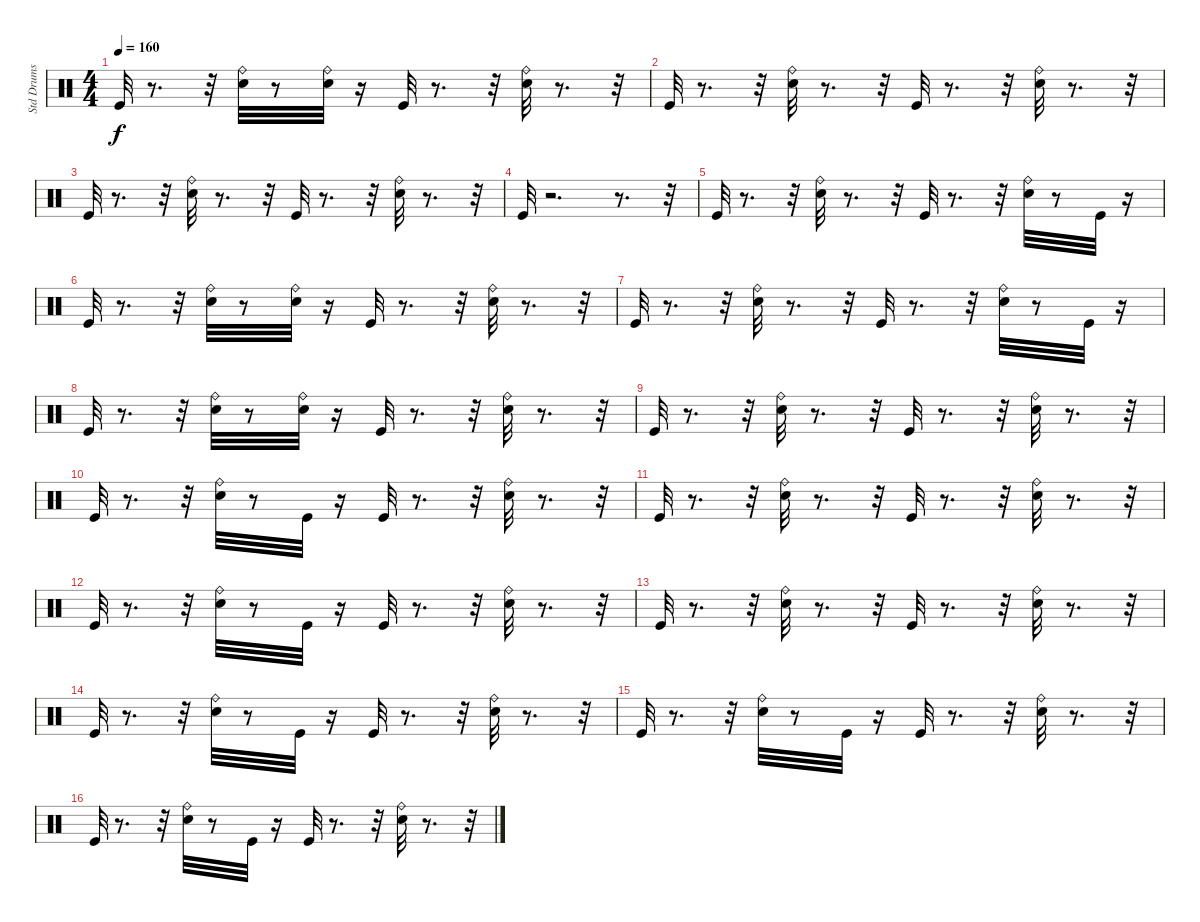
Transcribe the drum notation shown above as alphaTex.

\track ("Std Drums" "Std Drums") {instrument percussion}
\staff {score}
\articulation defaults
\ts (4 4)
\tempo 160
\clef neutral
\ks c "Kick (hit)".32{dy f}
r.8{d} r.32 ("Ride (bell)" "Snare (hit) 2").32 r.8 ("Snare (hit) 2" "Ride (bell)").32 r.16 "Kick (hit)".32 r.8{d} r.32 ("Snare (hit) 2" "Ride (bell)").32 r.8{d} r.32 |
"Kick (hit)".32 r.8{d} r.32 ("Ride (bell)" "Snare (hit) 2").32 r.8{d} r.32 "Kick (hit)".32 r.8{d} r.32 ("Ride (bell)" "Snare (hit) 2").32 r.8{d} r.32 |
"Kick (hit)".32 r.8{d} r.32 ("Snare (hit) 2" "Ride (bell)").32 r.8{d} r.32 "Kick (hit)".32 r.8{d} r.32 ("Ride (bell)" "Snare (hit) 2").32 r.8{d} r.32 |
"Kick (hit)".32 r.2{d} r.8{d} r.32 |
"Kick (hit)".32 r.8{d} r.32 ("Ride (bell)" "Snare (hit) 2").32 r.8{d} r.32 "Kick (hit)".32 r.8{d} r.32 ("Ride (bell)" "Snare (hit) 2").32 r.8 "Kick (hit)".32 r.16 |
"Kick (hit)".32 r.8{d} r.32 ("Snare (hit) 2" "Ride (bell)").32 r.8 ("Snare (hit) 2" "Ride (bell)").32 r.16 "Kick (hit)".32 r.8{d} r.32 ("Snare (hit) 2" "Ride (bell)").32 r.8{d} r.32 |
"Kick (hit)".32 r.8{d} r.32 ("Ride (bell)" "Snare (hit) 2").32 r.8{d} r.32 "Kick (hit)".32 r.8{d} r.32 ("Snare (hit) 2" "Ride (bell)").32 r.8 "Kick (hit)".32 r.16 |
"Kick (hit)".32 r.8{d} r.32 ("Ride (bell)" "Snare (hit) 2").32 r.8 ("Ride (bell)" "Snare (hit) 2").32 r.16 "Kick (hit)".32 r.8{d} r.32 ("Ride (bell)" "Snare (hit) 2").32 r.8{d} r.32 |
"Kick (hit)".32 r.8{d} r.32 ("Snare (hit) 2" "Ride (bell)").32 r.8{d} r.32 "Kick (hit)".32 r.8{d} r.32 ("Ride (bell)" "Snare (hit) 2").32 r.8{d} r.32 |
"Kick (hit)".32 r.8{d} r.32 ("Snare (hit) 2" "Ride (bell)").32 r.8 "Kick (hit)".32 r.16 "Kick (hit)".32 r.8{d} r.32 ("Ride (bell)" "Snare (hit) 2").32 r.8{d} r.32 |
"Kick (hit)".32 r.8{d} r.32 ("Snare (hit) 2" "Ride (bell)").32 r.8{d} r.32 "Kick (hit)".32 r.8{d} r.32 ("Snare (hit) 2" "Ride (bell)").32 r.8{d} r.32 |
"Kick (hit)".32 r.8{d} r.32 ("Ride (bell)" "Snare (hit) 2").32 r.8 "Kick (hit)".32 r.16 "Kick (hit)".32 r.8{d} r.32 ("Ride (bell)" "Snare (hit) 2").32 r.8{d} r.32 |
"Kick (hit)".32 r.8{d} r.32 ("Snare (hit) 2" "Ride (bell)").32 r.8{d} r.32 "Kick (hit)".32 r.8{d} r.32 ("Ride (bell)" "Snare (hit) 2").32 r.8{d} r.32 |
"Kick (hit)".32 r.8{d} r.32 ("Snare (hit) 2" "Ride (bell)").32 r.8 "Kick (hit)".32 r.16 "Kick (hit)".32 r.8{d} r.32 ("Ride (bell)" "Snare (hit) 2").32 r.8{d} r.32 |
"Kick (hit)".32 r.8{d} r.32 ("Ride (bell)" "Snare (hit) 2").32 r.8 "Kick (hit)".32 r.16 "Kick (hit)".32 r.8{d} r.32 ("Snare (hit) 2" "Ride (bell)").32 r.8{d} r.32 |
"Kick (hit)".32 r.8{d} r.32 ("Ride (bell)" "Snare (hit) 2").32 r.8 "Kick (hit)".32 r.16 "Kick (hit)".32 r.8{d} r.32 ("Ride (bell)" "Snare (hit) 2").32 r.8{d} r.32
